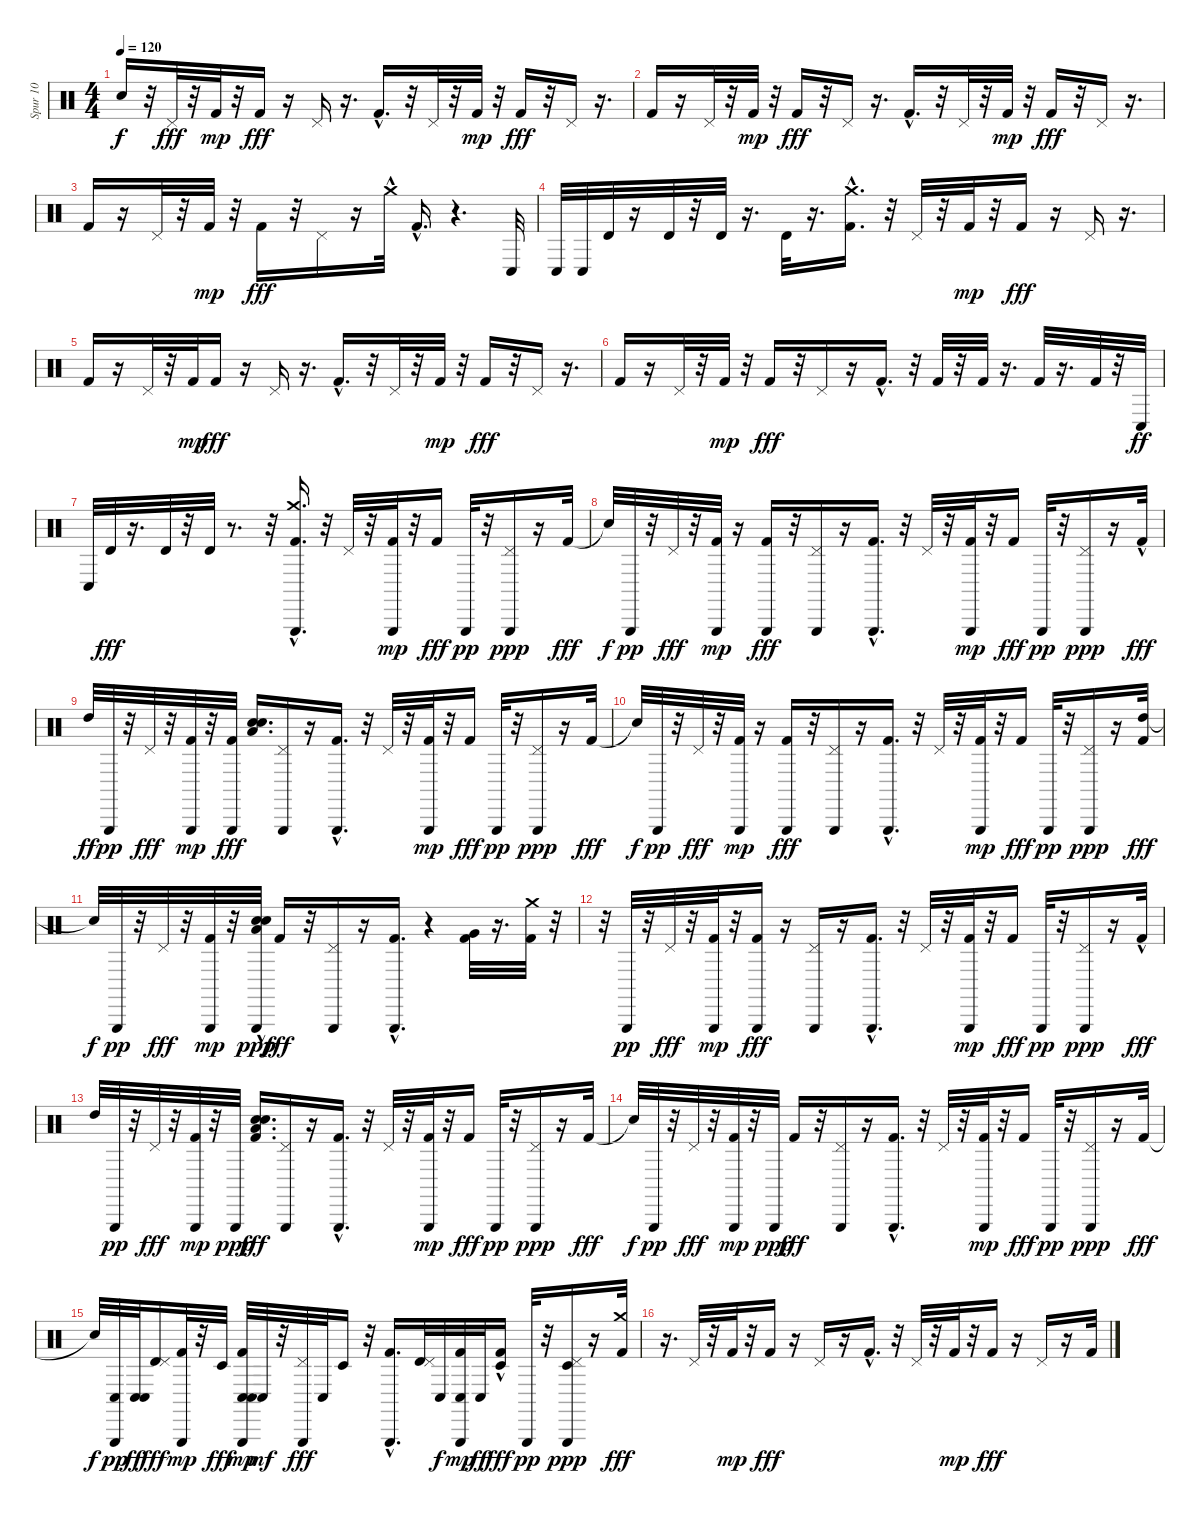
\track ("Spur 10" "Spur 10") {instrument percussion}
\staff {score}
\articulation defaults
\ts (4 4)
\tempo 120
\clef neutral
\ks c "Snare (hit)"{t}.16{dy f}
r.32 "Pedal Hi-Hat (hit)".32{dy fff} r.32 "Kick (hit) 2".32{dy mp} r.32 "Kick (hit) 2".16{dy fff} r.16 "Pedal Hi-Hat (hit)".16 r.16{d} "Kick (hit) 2"{hac}.16{d} r.32 "Pedal Hi-Hat (hit)".32 r.32 "Kick (hit) 2".32{dy mp} r.32 "Kick (hit) 2".16{dy fff} r.32 "Pedal Hi-Hat (hit)".16 r.16{d} |
"Kick (hit) 2".16 r.16 "Pedal Hi-Hat (hit)".32 r.32 "Kick (hit) 2".32{dy mp} r.32 "Kick (hit) 2".16{dy fff} r.32 "Pedal Hi-Hat (hit)".16 r.16{d} "Kick (hit) 2"{hac}.16{d} r.32 "Pedal Hi-Hat (hit)".32 r.32 "Kick (hit) 2".32{dy mp} r.32 "Kick (hit) 2".16{dy fff} r.32 "Pedal Hi-Hat (hit)".16 r.16{d} |
"Kick (hit) 2".16 r.16 "Pedal Hi-Hat (hit)".32 r.32 "Kick (hit) 2".32{dy mp} r.32 "Kick (hit) 2".16{dy fff} r.32 "Pedal Hi-Hat (hit)".16 r.16 "Crash medium (hit)"{hac}.32 "Kick (hit) 2"{hac}.16{d} r.4{d} "Conga low (hit)".32 |
"Conga low (hit)".32 "Conga low (hit)".32 "Timbale high (hit)".32 r.16 "Timbale high (hit)".32 r.32 "Timbale high (hit)".32 r.16{d} "Timbale high (hit)".32 r.16{d} ("Crash medium (hit)"{hac} "Kick (hit) 2"{hac}).16{d} r.32 "Pedal Hi-Hat (hit)".32 r.32 "Kick (hit) 2".32{dy mp} r.32 "Kick (hit) 2".16{dy fff} r.16 "Pedal Hi-Hat (hit)".16 r.16{d} |
"Kick (hit) 2".16 r.16 "Pedal Hi-Hat (hit)".32 r.32 "Kick (hit) 2".32{dy mp} "Kick (hit) 2".16{dy fff} r.16 "Pedal Hi-Hat (hit)".16 r.16{d} "Kick (hit) 2"{hac}.16{d} r.32 "Pedal Hi-Hat (hit)".32 r.32 "Kick (hit) 2".32{dy mp} r.32 "Kick (hit) 2".16{dy fff} r.32 "Pedal Hi-Hat (hit)".16 r.16{d} |
"Kick (hit) 2".16 r.16 "Pedal Hi-Hat (hit)".32 r.32 "Kick (hit) 2".32{dy mp} r.32 "Kick (hit) 2".16{dy fff} r.32 "Pedal Hi-Hat (hit)".16 r.16 "Kick (hit) 2"{hac}.16{d} r.32 "Kick (hit) 2".32 r.32 "Kick (hit) 2".32 r.16{d} "Kick (hit) 2".32 r.16{d} "Kick (hit) 2".32 r.32 "Conga low (hit)".32{dy ff} |
"Conga low (hit)".32 "Timbale high (hit)".32{dy fff} r.16{d} "Timbale high (hit)".32 r.32 "Timbale high (hit)".32 r.8{d} r.32 ("Crash medium (hit)" "Triangle (hit)" "Kick (hit) 2"{hac}).16{d} r.32 "Pedal Hi-Hat (hit)".32 r.32 ("Triangle (hit)" "Kick (hit) 2").32{dy mp} r.32 "Kick (hit) 2".16{dy fff} "Triangle (hit)".32{dy pp} r.32 ("Pedal Hi-Hat (hit)" "Triangle (hit)").16{dy ppp} r.16 "Kick (hit) 2".32{dy fff} |
"Snare (hit)"{t}.32{dy f} "Triangle (hit)".32{dy pp} r.32 "Pedal Hi-Hat (hit)".32{dy fff} r.32 ("Triangle (hit)" "Kick (hit) 2").32{dy mp} r.16 ("Triangle (hit)" "Kick (hit) 2").16{dy fff} r.32 ("Triangle (hit)" "Pedal Hi-Hat (hit)").16 r.16 ("Triangle (hit)" "Kick (hit) 2"{hac}).16{d} r.32 "Pedal Hi-Hat (hit)".32 r.32 ("Triangle (hit)" "Kick (hit) 2").32{dy mp} r.32 "Kick (hit) 2".16{dy fff} "Triangle (hit)".32{dy pp} r.32 ("Pedal Hi-Hat (hit)" "Triangle (hit)").16{dy ppp} r.16 "Kick (hit) 2"{hac}.32{dy fff} |
"High Tom (hit)".32{dy ff} "Triangle (hit)".32{dy pp} r.32 "Pedal Hi-Hat (hit)".32{dy fff} r.32 ("Triangle (hit)" "Kick (hit) 2").32{dy mp} r.32 ("Triangle (hit)" "Kick (hit) 2").32{dy fff} ("Low Floor Tom (hit)" "Snare (hit) 2" "Hand Clap (hit)").16{d} ("Triangle (hit)" "Pedal Hi-Hat (hit)").16 r.16 ("Triangle (hit)" "Kick (hit) 2"{hac}).16{d} r.32 "Pedal Hi-Hat (hit)".32 r.32 ("Triangle (hit)" "Kick (hit) 2").32{dy mp} r.32 "Kick (hit) 2".16{dy fff} "Triangle (hit)".32{dy pp} r.32 ("Pedal Hi-Hat (hit)" "Triangle (hit)").16{dy ppp} r.16 "Kick (hit) 2".32{dy fff} |
"Snare (hit)"{t}.32{dy f} "Triangle (hit)".32{dy pp} r.32 "Pedal Hi-Hat (hit)".32{dy fff} r.32 ("Triangle (hit)" "Kick (hit) 2").32{dy mp} r.16 ("Triangle (hit)" "Kick (hit) 2").16{dy fff} r.32 ("Triangle (hit)" "Pedal Hi-Hat (hit)").16 r.16 ("Triangle (hit)" "Kick (hit) 2"{hac}).16{d} r.32 "Pedal Hi-Hat (hit)".32 r.32 ("Triangle (hit)" "Kick (hit) 2").32{dy mp} r.32 "Kick (hit) 2".16{dy fff} "Triangle (hit)".32{dy pp} r.32 ("Pedal Hi-Hat (hit)" "Triangle (hit)").16{dy ppp} r.16 ("High Tom (hit)" "Kick (hit) 2").32{dy fff} |
"Snare (hit)"{t}.32{dy f} "Triangle (hit)".32{dy pp} r.32 "Pedal Hi-Hat (hit)".32{dy fff} r.32 ("Triangle (hit)" "Kick (hit) 2").32{dy mp} r.32 ("Low Floor Tom (hit)" "Snare (hit) 2"{hac} "Hand Clap (hit)"{hac} "Triangle (hit)").32{dy ppp} "Kick (hit) 2".16{dy fff} r.32 ("Triangle (hit)" "Pedal Hi-Hat (hit)").16 r.16 ("Triangle (hit)" "Kick (hit) 2"{hac}).16{d} r.4 ("Very Low Tom (hit)" "Kick (hit) 2").32 r.16{d} ("Crash medium (hit)" "Kick (hit) 2").32 r.32 |
r.32 "Triangle (hit)".32{dy pp} r.32 "Pedal Hi-Hat (hit)".32{dy fff} r.32 ("Triangle (hit)" "Kick (hit) 2").32{dy mp} r.32 ("Triangle (hit)" "Kick (hit) 2").16{dy fff} r.16 ("Triangle (hit)" "Pedal Hi-Hat (hit)").16 r.16 ("Triangle (hit)" "Kick (hit) 2"{hac}).16{d} r.32 "Pedal Hi-Hat (hit)".32 r.32 ("Triangle (hit)" "Kick (hit) 2").32{dy mp} r.32 "Kick (hit) 2".16{dy fff} "Triangle (hit)".32{dy pp} r.32 ("Pedal Hi-Hat (hit)" "Triangle (hit)").16{dy ppp} r.16 "Kick (hit) 2"{hac}.32{dy fff} |
"High Tom (hit)".32 "Triangle (hit)".32{dy pp} r.32 "Pedal Hi-Hat (hit)".32{dy fff} r.32 ("Triangle (hit)" "Kick (hit) 2").32{dy mp} r.32 "Triangle (hit)".32{dy ppp} ("Kick (hit) 2" "Low Floor Tom (hit)" "Snare (hit) 2" "Hand Clap (hit)").16{d dy fff} ("Triangle (hit)" "Pedal Hi-Hat (hit)").16 r.16 ("Triangle (hit)" "Kick (hit) 2"{hac}).16{d} r.32 "Pedal Hi-Hat (hit)".32 r.32 ("Triangle (hit)" "Kick (hit) 2").32{dy mp} r.32 "Kick (hit) 2".16{dy fff} "Triangle (hit)".32{dy pp} r.32 ("Pedal Hi-Hat (hit)" "Triangle (hit)").16{dy ppp} r.16 "Kick (hit) 2".32{dy fff} |
"Snare (hit)"{t}.32{dy f} "Triangle (hit)".32{dy pp} r.32 "Pedal Hi-Hat (hit)".32{dy fff} r.32 ("Triangle (hit)" "Kick (hit) 2").32{dy mp} r.32 "Triangle (hit)".32{dy ppp} "Kick (hit) 2".16{dy fff} r.32 ("Triangle (hit)" "Pedal Hi-Hat (hit)").16 r.16 ("Triangle (hit)" "Kick (hit) 2"{hac}).16{d} r.32 "Pedal Hi-Hat (hit)".32 r.32 ("Triangle (hit)" "Kick (hit) 2").32{dy mp} r.32 "Kick (hit) 2".16{dy fff} "Triangle (hit)".32{dy pp} r.32 ("Pedal Hi-Hat (hit)" "Triangle (hit)").16{dy ppp} r.16 "Kick (hit) 2".32{dy fff} |
"Snare (hit)"{t}.32{dy f} ("Conga low (hit)" "Triangle (hit)").32{dy pp} ("Conga low (hit)" "Conga low (hit)").32{dy ff} ("Timbale high (hit)" "Pedal Hi-Hat (hit)").16{dy fff} ("Triangle (hit)" "Kick (hit) 2").32{dy mp} r.32 "Timbale low (hit)".32{dy fff} ("Triangle (hit)" "Kick (hit) 2" "Conga low (hit)" "Conga low (hit)").32{dy mp} "Conga low (hit)".32{dy mf} r.32 ("Triangle (hit)" "Pedal Hi-Hat (hit)").32{dy fff} "Conga low (hit)".32 "Timbale low (hit)".16 r.32 ("Triangle (hit)" "Kick (hit) 2"{hac}).16{d} ("Timbale high (hit)" "Pedal Hi-Hat (hit)").32 "Conga low (hit)".32{dy f} ("Conga low (hit)" "Triangle (hit)" "Kick (hit) 2").32{dy mp} "Conga low (hit)".32{dy ff} ("Timbale low (hit)" "Kick (hit) 2"{hac}).16{dy fff} "Triangle (hit)".32{dy pp} r.32 ("Timbale low (hit)" "Pedal Hi-Hat (hit)" "Triangle (hit)").16{dy ppp} r.16 ("Kick (hit) 2" "Crash medium (hit)").32{dy fff} |
r.16{d} "Pedal Hi-Hat (hit)".32 r.32 "Kick (hit) 2".32{dy mp} r.32 "Kick (hit) 2".16{dy fff} r.16 "Pedal Hi-Hat (hit)".16 r.16 "Kick (hit) 2"{hac}.16{d} r.32 "Pedal Hi-Hat (hit)".32 r.32 "Kick (hit) 2".32{dy mp} r.32 "Kick (hit) 2".16{dy fff} r.16 "Pedal Hi-Hat (hit)".16 r.16 "Kick (hit) 2".32
